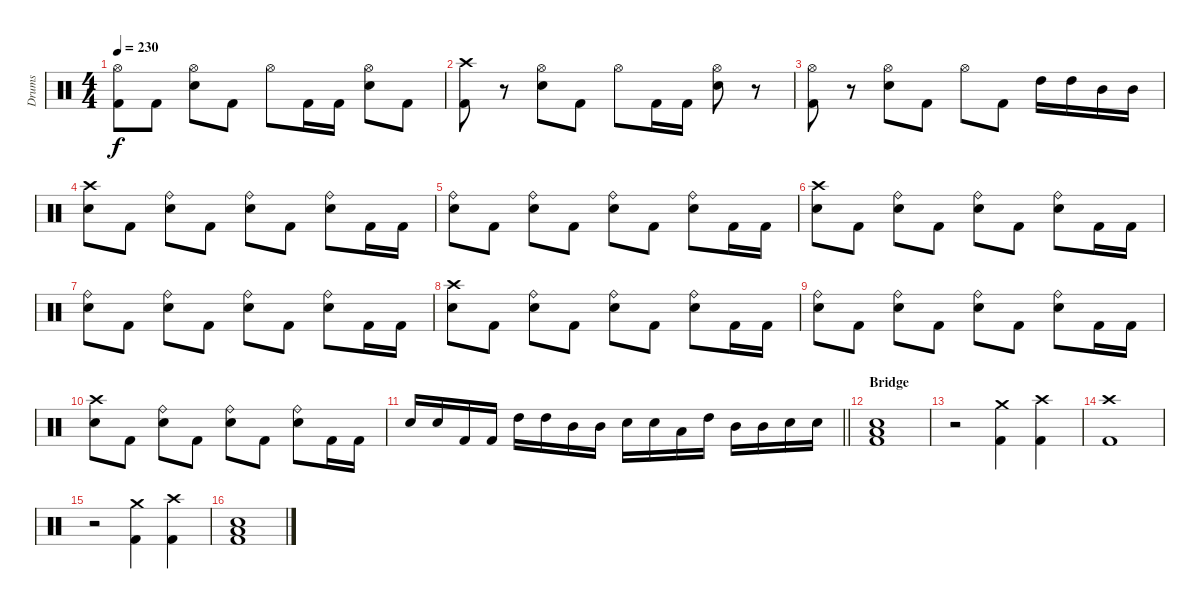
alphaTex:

\track ("Drums" "Drums") {instrument percussion}
\staff {score}
\articulation defaults
\ts (4 4)
\tempo 230
\clef neutral
\ks c
("Hi-Hat (open)" "Kick (hit) 2").8{dy f} "Kick (hit) 2".8 ("Hi-Hat (open)" "Electric Snare (hit)").8 "Kick (hit) 2".8 "Hi-Hat (open)".8 "Kick (hit) 2".16 "Kick (hit) 2".16 ("Hi-Hat (open)" "Electric Snare (hit)").8 "Kick (hit) 2".8 |
("Crash high (hit)" "Kick (hit) 2").8 r.8 ("Hi-Hat (open)" "Electric Snare (hit)").8 "Kick (hit) 2".8 "Hi-Hat (open)".8 "Kick (hit) 2".16 "Kick (hit) 2".16 ("Hi-Hat (open)" "Electric Snare (hit)").8 r.8 |
("Hi-Hat (open)" "Kick (hit) 2").8 r.8 ("Hi-Hat (open)" "Electric Snare (hit)").8 "Kick (hit) 2".8 "Hi-Hat (open)".8 "Kick (hit) 2".8 "High Tom (hit)".16 "High Tom (hit)".16 "Mid Tom (hit)".16 "Mid Tom (hit)".16 |
("Crash high (hit)" "Electric Snare (hit)").8 "Kick (hit) 2".8 ("Ride (bell)" "Electric Snare (hit)").8 "Kick (hit) 2".8 ("Ride (bell)" "Electric Snare (hit)").8 "Kick (hit) 2".8 ("Ride (bell)" "Electric Snare (hit)").8 "Kick (hit) 2".16 "Kick (hit) 2".16 |
("Ride (bell)" "Electric Snare (hit)").8 "Kick (hit) 2".8 ("Ride (bell)" "Electric Snare (hit)").8 "Kick (hit) 2".8 ("Ride (bell)" "Electric Snare (hit)").8 "Kick (hit) 2".8 ("Ride (bell)" "Electric Snare (hit)").8 "Kick (hit) 2".16 "Kick (hit) 2".16 |
("Crash high (hit)" "Electric Snare (hit)").8 "Kick (hit) 2".8 ("Ride (bell)" "Electric Snare (hit)").8 "Kick (hit) 2".8 ("Ride (bell)" "Electric Snare (hit)").8 "Kick (hit) 2".8 ("Ride (bell)" "Electric Snare (hit)").8 "Kick (hit) 2".16 "Kick (hit) 2".16 |
("Ride (bell)" "Electric Snare (hit)").8 "Kick (hit) 2".8 ("Ride (bell)" "Electric Snare (hit)").8 "Kick (hit) 2".8 ("Ride (bell)" "Electric Snare (hit)").8 "Kick (hit) 2".8 ("Ride (bell)" "Electric Snare (hit)").8 "Kick (hit) 2".16 "Kick (hit) 2".16 |
("Crash high (hit)" "Electric Snare (hit)").8 "Kick (hit) 2".8 ("Ride (bell)" "Electric Snare (hit)").8 "Kick (hit) 2".8 ("Ride (bell)" "Electric Snare (hit)").8 "Kick (hit) 2".8 ("Ride (bell)" "Electric Snare (hit)").8 "Kick (hit) 2".16 "Kick (hit) 2".16 |
("Ride (bell)" "Electric Snare (hit)").8 "Kick (hit) 2".8 ("Ride (bell)" "Electric Snare (hit)").8 "Kick (hit) 2".8 ("Ride (bell)" "Electric Snare (hit)").8 "Kick (hit) 2".8 ("Ride (bell)" "Electric Snare (hit)").8 "Kick (hit) 2".16 "Kick (hit) 2".16 |
("Crash high (hit)" "Electric Snare (hit)").8 "Kick (hit) 2".8 ("Ride (bell)" "Electric Snare (hit)").8 "Kick (hit) 2".8 ("Ride (bell)" "Electric Snare (hit)").8 "Kick (hit) 2".8 ("Ride (bell)" "Electric Snare (hit)").8 "Kick (hit) 2".16 "Kick (hit) 2".16 |
\barLineRight lightlight "Electric Snare (hit)".16 "Electric Snare (hit)".16 "Kick (hit) 2".16 "Kick (hit) 2".16 "High Tom (hit)".16 "High Tom (hit)".16 "Mid Tom (hit)".16 "Mid Tom (hit)".16 "Electric Snare (hit)".16 "Electric Snare (hit)".16 "Low Tom (hit)".16 "High Tom (hit)".16 "Mid Tom (hit)".16 "Mid Tom (hit)".16 "Electric Snare (hit)".16 "Electric Snare (hit)".16
|
\section ("" "Bridge")
("Electric Snare (hit)" "Low Floor Tom (hit)" "Kick (hit) 2").1 |
r.2 ("Crash medium (hit)" "Kick (hit) 2").4 ("Crash high (hit)" "Kick (hit) 2").4 |
("Crash high (hit)" "Kick (hit) 2").1 |
r.2 ("Crash medium (hit)" "Kick (hit) 2").4 ("Crash high (hit)" "Kick (hit) 2").4 |
("Electric Snare (hit)" "Low Floor Tom (hit)" "Kick (hit) 2").1
